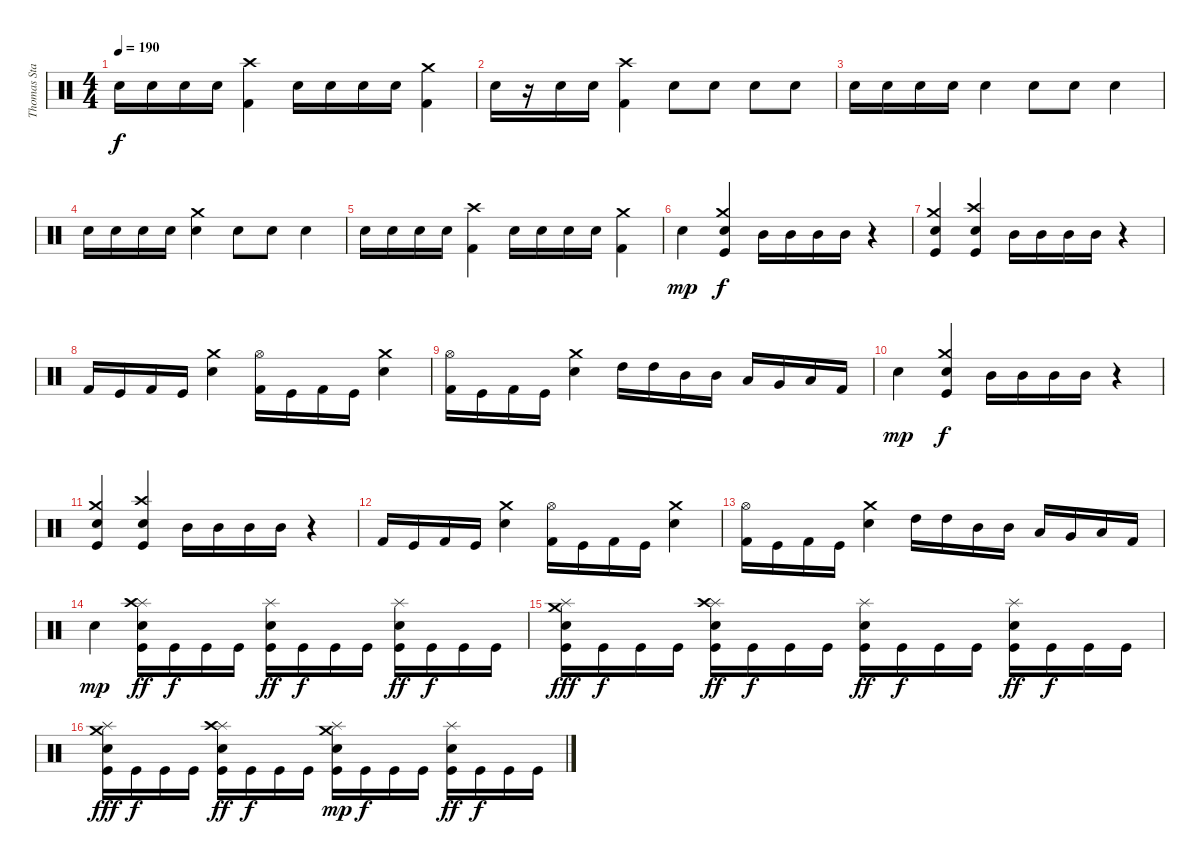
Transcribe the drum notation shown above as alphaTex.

\track ("Thomas Stauch" "Thomas Sta") {instrument percussion}
\staff {score}
\articulation defaults
\ts (4 4)
\tempo 190
\clef neutral
\ks c "Electric Snare (hit)".16{dy f} "Electric Snare (hit)".16 "Electric Snare (hit)".16 "Electric Snare (hit)".16
("Crash high (hit)" "Kick (hit) 2").4 "Electric Snare (hit)".16 "Electric Snare (hit)".16 "Electric Snare (hit)".16 "Electric Snare (hit)".16 ("Crash medium (hit)" "Kick (hit) 2").4 |
"Electric Snare (hit)".16 r.16 "Electric Snare (hit)".16 "Electric Snare (hit)".16 ("Crash high (hit)" "Kick (hit) 2").4 "Electric Snare (hit)".8 "Electric Snare (hit)".8 "Electric Snare (hit)".8 "Electric Snare (hit)".8 |
"Electric Snare (hit)".16 "Electric Snare (hit)".16 "Electric Snare (hit)".16 "Electric Snare (hit)".16 "Electric Snare (hit)".4 "Electric Snare (hit)".8 "Electric Snare (hit)".8 "Electric Snare (hit)".4 |
"Electric Snare (hit)".16 "Electric Snare (hit)".16 "Electric Snare (hit)".16 "Electric Snare (hit)".16 ("Crash medium (hit)" "Electric Snare (hit)").4 "Electric Snare (hit)".8 "Electric Snare (hit)".8 "Electric Snare (hit)".4 |
"Electric Snare (hit)".16 "Electric Snare (hit)".16 "Electric Snare (hit)".16 "Electric Snare (hit)".16 ("Crash high (hit)" "Kick (hit) 2").4 "Electric Snare (hit)".16 "Electric Snare (hit)".16 "Electric Snare (hit)".16 "Electric Snare (hit)".16 ("Crash medium (hit)" "Kick (hit) 2").4 |
"Electric Snare (hit)".4{dy mp} ("Crash medium (hit)" "Electric Snare (hit)" "Kick (hit)").4{dy f} "Mid Tom (hit)".16 "Mid Tom (hit)".16 "Mid Tom (hit)".16 "Mid Tom (hit)".16 r.4 |
("Crash medium (hit)" "Electric Snare (hit)" "Kick (hit)").4 ("Crash high (hit)" "Electric Snare (hit)" "Kick (hit)").4 "Mid Tom (hit)".16 "Mid Tom (hit)".16 "Mid Tom (hit)".16 "Mid Tom (hit)".16 r.4 |
"Kick (hit) 2".16 "Kick (hit)".16 "Kick (hit) 2".16 "Kick (hit)".16 ("Crash medium (hit)" "Electric Snare (hit)").4 ("Hi-Hat (open)" "Kick (hit) 2").16 "Kick (hit)".16 "Kick (hit) 2".16 "Kick (hit)".16 ("Crash medium (hit)" "Electric Snare (hit)").4 |
("Hi-Hat (open)" "Kick (hit) 2").16 "Kick (hit)".16 "Kick (hit) 2".16 "Kick (hit)".16 ("Crash medium (hit)" "Electric Snare (hit)").4 "High Tom (hit)".16 "High Tom (hit)".16 "Mid Tom (hit)".16 "Mid Tom (hit)".16 "Low Tom (hit)".16 "Very Low Tom (hit)".16 "Low Floor Tom (hit)".16 "Kick (hit) 2".16 |
"Electric Snare (hit)".4{dy mp} ("Crash medium (hit)" "Electric Snare (hit)" "Kick (hit)").4{dy f} "Mid Tom (hit)".16 "Mid Tom (hit)".16 "Mid Tom (hit)".16 "Mid Tom (hit)".16 r.4 |
("Crash medium (hit)" "Electric Snare (hit)" "Kick (hit)").4 ("Crash high (hit)" "Electric Snare (hit)" "Kick (hit)").4 "Mid Tom (hit)".16 "Mid Tom (hit)".16 "Mid Tom (hit)".16 "Mid Tom (hit)".16 r.4 |
"Kick (hit) 2".16 "Kick (hit)".16 "Kick (hit) 2".16 "Kick (hit)".16 ("Crash medium (hit)" "Electric Snare (hit)").4 ("Hi-Hat (open)" "Kick (hit) 2").16 "Kick (hit)".16 "Kick (hit) 2".16 "Kick (hit)".16 ("Crash medium (hit)" "Electric Snare (hit)").4 |
("Hi-Hat (open)" "Kick (hit) 2").16 "Kick (hit)".16 "Kick (hit) 2".16 "Kick (hit)".16 ("Crash medium (hit)" "Electric Snare (hit)").4 "High Tom (hit)".16 "High Tom (hit)".16 "Mid Tom (hit)".16 "Mid Tom (hit)".16 "Low Tom (hit)".16 "Very Low Tom (hit)".16 "Low Floor Tom (hit)".16 "Kick (hit) 2".16 |
"Electric Snare (hit)".4{dy mp} ("Splash (hit)" "Crash high (hit)" "Electric Snare (hit)" "Kick (hit)").16{dy ff} "Kick (hit)".16{dy f} "Kick (hit)".16 "Kick (hit)".16 ("Splash (hit)" "Electric Snare (hit)" "Kick (hit)").16{dy ff} "Kick (hit)".16{dy f} "Kick (hit)".16 "Kick (hit)".16 ("Splash (hit)" "Electric Snare (hit)" "Kick (hit)").16{dy ff} "Kick (hit)".16{dy f} "Kick (hit)".16 "Kick (hit)".16 |
("Splash (hit)" "Crash medium (hit)" "Electric Snare (hit)" "Kick (hit)").16{dy fff} "Kick (hit)".16{dy f} "Kick (hit)".16 "Kick (hit)".16 ("Splash (hit)" "Crash high (hit)" "Electric Snare (hit)" "Kick (hit)").16{dy ff} "Kick (hit)".16{dy f} "Kick (hit)".16 "Kick (hit)".16 ("Splash (hit)" "Electric Snare (hit)" "Kick (hit)").16{dy ff} "Kick (hit)".16{dy f} "Kick (hit)".16 "Kick (hit)".16 ("Splash (hit)" "Electric Snare (hit)" "Kick (hit)").16{dy ff} "Kick (hit)".16{dy f} "Kick (hit)".16 "Kick (hit)".16 |
("Splash (hit)" "Crash medium (hit)" "Electric Snare (hit)" "Kick (hit)").16{dy fff} "Kick (hit)".16{dy f} "Kick (hit)".16 "Kick (hit)".16 ("Splash (hit)" "Crash high (hit)" "Electric Snare (hit)" "Kick (hit)").16{dy ff} "Kick (hit)".16{dy f} "Kick (hit)".16 "Kick (hit)".16 ("Splash (hit)" "Crash medium (hit)" "Electric Snare (hit)" "Kick (hit)").16{dy mp} "Kick (hit)".16{dy f} "Kick (hit)".16 "Kick (hit)".16 ("Splash (hit)" "Electric Snare (hit)" "Kick (hit)").16{dy ff} "Kick (hit)".16{dy f} "Kick (hit)".16 "Kick (hit)".16
